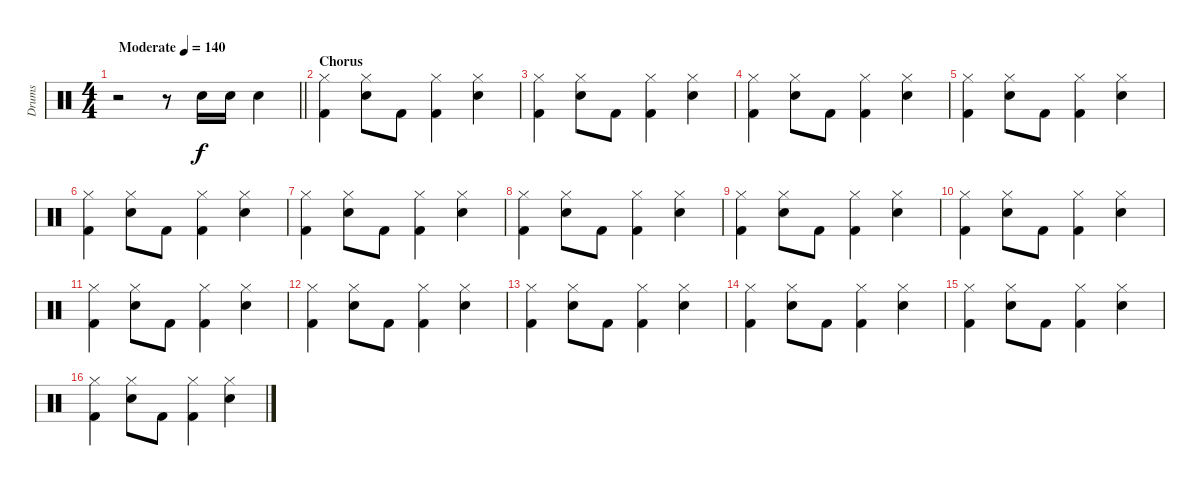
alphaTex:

\track ("Drums" "Drums") {instrument percussion}
\staff {score}
\articulation defaults
\ts (4 4)
\tempo (140 "Moderate")
\clef neutral
\barLineRight lightlight
\ks c
r.2{dy f} r.8 "Electric Snare (hit)".16 "Electric Snare (hit)".16 "Electric Snare (hit)".4 |
\section ("" "Chorus")
("Hi-Hat (closed)" "Kick (hit) 2").4 ("Hi-Hat (closed)" "Electric Snare (hit)").8 "Kick (hit) 2".8 ("Hi-Hat (closed)" "Kick (hit) 2").4 ("Hi-Hat (closed)" "Electric Snare (hit)").4 |
("Hi-Hat (closed)" "Kick (hit) 2").4 ("Hi-Hat (closed)" "Electric Snare (hit)").8 "Kick (hit) 2".8 ("Hi-Hat (closed)" "Kick (hit) 2").4 ("Hi-Hat (closed)" "Electric Snare (hit)").4 |
("Hi-Hat (closed)" "Kick (hit) 2").4 ("Hi-Hat (closed)" "Electric Snare (hit)").8 "Kick (hit) 2".8 ("Hi-Hat (closed)" "Kick (hit) 2").4 ("Hi-Hat (closed)" "Electric Snare (hit)").4 |
("Hi-Hat (closed)" "Kick (hit) 2").4 ("Hi-Hat (closed)" "Electric Snare (hit)").8 "Kick (hit) 2".8 ("Hi-Hat (closed)" "Kick (hit) 2").4 ("Hi-Hat (closed)" "Electric Snare (hit)").4 |
("Hi-Hat (closed)" "Kick (hit) 2").4 ("Hi-Hat (closed)" "Electric Snare (hit)").8 "Kick (hit) 2".8 ("Hi-Hat (closed)" "Kick (hit) 2").4 ("Hi-Hat (closed)" "Electric Snare (hit)").4 |
("Hi-Hat (closed)" "Kick (hit) 2").4 ("Hi-Hat (closed)" "Electric Snare (hit)").8 "Kick (hit) 2".8 ("Hi-Hat (closed)" "Kick (hit) 2").4 ("Hi-Hat (closed)" "Electric Snare (hit)").4 |
("Hi-Hat (closed)" "Kick (hit) 2").4 ("Hi-Hat (closed)" "Electric Snare (hit)").8 "Kick (hit) 2".8 ("Hi-Hat (closed)" "Kick (hit) 2").4 ("Hi-Hat (closed)" "Electric Snare (hit)").4 |
("Hi-Hat (closed)" "Kick (hit) 2").4 ("Hi-Hat (closed)" "Electric Snare (hit)").8 "Kick (hit) 2".8 ("Hi-Hat (closed)" "Kick (hit) 2").4 ("Hi-Hat (closed)" "Electric Snare (hit)").4 |
("Hi-Hat (closed)" "Kick (hit) 2").4 ("Hi-Hat (closed)" "Electric Snare (hit)").8 "Kick (hit) 2".8 ("Hi-Hat (closed)" "Kick (hit) 2").4 ("Hi-Hat (closed)" "Electric Snare (hit)").4 |
("Hi-Hat (closed)" "Kick (hit) 2").4 ("Hi-Hat (closed)" "Electric Snare (hit)").8 "Kick (hit) 2".8 ("Hi-Hat (closed)" "Kick (hit) 2").4 ("Hi-Hat (closed)" "Electric Snare (hit)").4 |
("Hi-Hat (closed)" "Kick (hit) 2").4 ("Hi-Hat (closed)" "Electric Snare (hit)").8 "Kick (hit) 2".8 ("Hi-Hat (closed)" "Kick (hit) 2").4 ("Hi-Hat (closed)" "Electric Snare (hit)").4 |
("Hi-Hat (closed)" "Kick (hit) 2").4 ("Hi-Hat (closed)" "Electric Snare (hit)").8 "Kick (hit) 2".8 ("Hi-Hat (closed)" "Kick (hit) 2").4 ("Hi-Hat (closed)" "Electric Snare (hit)").4 |
("Hi-Hat (closed)" "Kick (hit) 2").4 ("Hi-Hat (closed)" "Electric Snare (hit)").8 "Kick (hit) 2".8 ("Hi-Hat (closed)" "Kick (hit) 2").4 ("Hi-Hat (closed)" "Electric Snare (hit)").4 |
("Hi-Hat (closed)" "Kick (hit) 2").4 ("Hi-Hat (closed)" "Electric Snare (hit)").8 "Kick (hit) 2".8 ("Hi-Hat (closed)" "Kick (hit) 2").4 ("Hi-Hat (closed)" "Electric Snare (hit)").4 |
("Hi-Hat (closed)" "Kick (hit) 2").4 ("Hi-Hat (closed)" "Electric Snare (hit)").8 "Kick (hit) 2".8 ("Hi-Hat (closed)" "Kick (hit) 2").4 ("Hi-Hat (closed)" "Electric Snare (hit)").4
